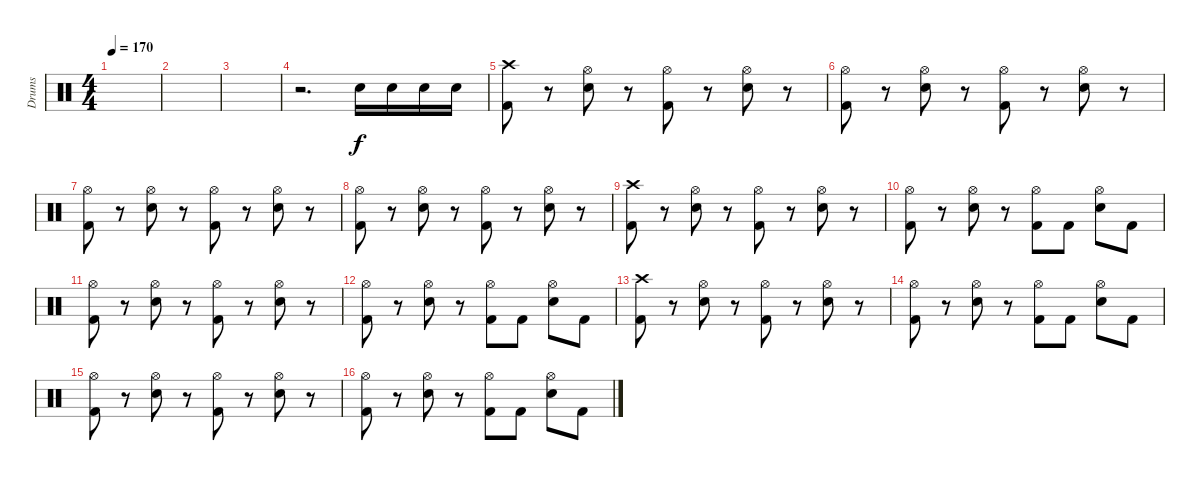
\track ("Drums" "Drums") {instrument percussion}
\staff {score}
\articulation defaults
\ts (4 4)
\tempo 170
\clef neutral
\ks c
|
|
|
r.2{d} "Snare (hit) 2".16 "Snare (hit) 2".16 "Snare (hit) 2".16 "Snare (hit) 2".16 |
\section ("" "")
("Crash high (hit)" "Kick (hit) 2").8 r.8 ("Hi-Hat (open)" "Snare (hit) 2").8 r.8 ("Hi-Hat (open)" "Kick (hit) 2").8 r.8 ("Hi-Hat (open)" "Snare (hit) 2").8 r.8 |
("Hi-Hat (open)" "Kick (hit) 2").8 r.8 ("Hi-Hat (open)" "Snare (hit) 2").8 r.8 ("Hi-Hat (open)" "Kick (hit) 2").8 r.8 ("Hi-Hat (open)" "Snare (hit) 2").8 r.8 |
("Hi-Hat (open)" "Kick (hit) 2").8 r.8 ("Hi-Hat (open)" "Snare (hit) 2").8 r.8 ("Hi-Hat (open)" "Kick (hit) 2").8 r.8 ("Hi-Hat (open)" "Snare (hit) 2").8 r.8 |
("Hi-Hat (open)" "Kick (hit) 2").8 r.8 ("Hi-Hat (open)" "Snare (hit) 2").8 r.8 ("Hi-Hat (open)" "Kick (hit) 2").8 r.8 ("Hi-Hat (open)" "Snare (hit) 2").8 r.8 |
\section ("" "")
("Crash high (hit)" "Kick (hit) 2").8 r.8 ("Hi-Hat (open)" "Snare (hit) 2").8 r.8 ("Hi-Hat (open)" "Kick (hit) 2").8 r.8 ("Hi-Hat (open)" "Snare (hit) 2").8 r.8 |
("Hi-Hat (open)" "Kick (hit) 2").8 r.8 ("Hi-Hat (open)" "Snare (hit) 2").8 r.8 ("Hi-Hat (open)" "Kick (hit) 2").8 "Kick (hit) 2".8 ("Hi-Hat (open)" "Snare (hit) 2").8 "Kick (hit) 2".8 |
("Hi-Hat (open)" "Kick (hit) 2").8 r.8 ("Hi-Hat (open)" "Snare (hit) 2").8 r.8 ("Hi-Hat (open)" "Kick (hit) 2").8 r.8 ("Hi-Hat (open)" "Snare (hit) 2").8 r.8 |
("Hi-Hat (open)" "Kick (hit) 2").8 r.8 ("Hi-Hat (open)" "Snare (hit) 2").8 r.8 ("Hi-Hat (open)" "Kick (hit) 2").8 "Kick (hit) 2".8 ("Hi-Hat (open)" "Snare (hit) 2").8 "Kick (hit) 2".8 |
("Crash high (hit)" "Kick (hit) 2").8 r.8 ("Hi-Hat (open)" "Snare (hit) 2").8 r.8 ("Hi-Hat (open)" "Kick (hit) 2").8 r.8 ("Hi-Hat (open)" "Snare (hit) 2").8 r.8 |
("Hi-Hat (open)" "Kick (hit) 2").8 r.8 ("Hi-Hat (open)" "Snare (hit) 2").8 r.8 ("Hi-Hat (open)" "Kick (hit) 2").8 "Kick (hit) 2".8 ("Hi-Hat (open)" "Snare (hit) 2").8 "Kick (hit) 2".8 |
("Hi-Hat (open)" "Kick (hit) 2").8 r.8 ("Hi-Hat (open)" "Snare (hit) 2").8 r.8 ("Hi-Hat (open)" "Kick (hit) 2").8 r.8 ("Hi-Hat (open)" "Snare (hit) 2").8 r.8 |
("Hi-Hat (open)" "Kick (hit) 2").8 r.8 ("Hi-Hat (open)" "Snare (hit) 2").8 r.8 ("Hi-Hat (open)" "Kick (hit) 2").8 "Kick (hit) 2".8 ("Hi-Hat (open)" "Snare (hit) 2").8 "Kick (hit) 2".8
